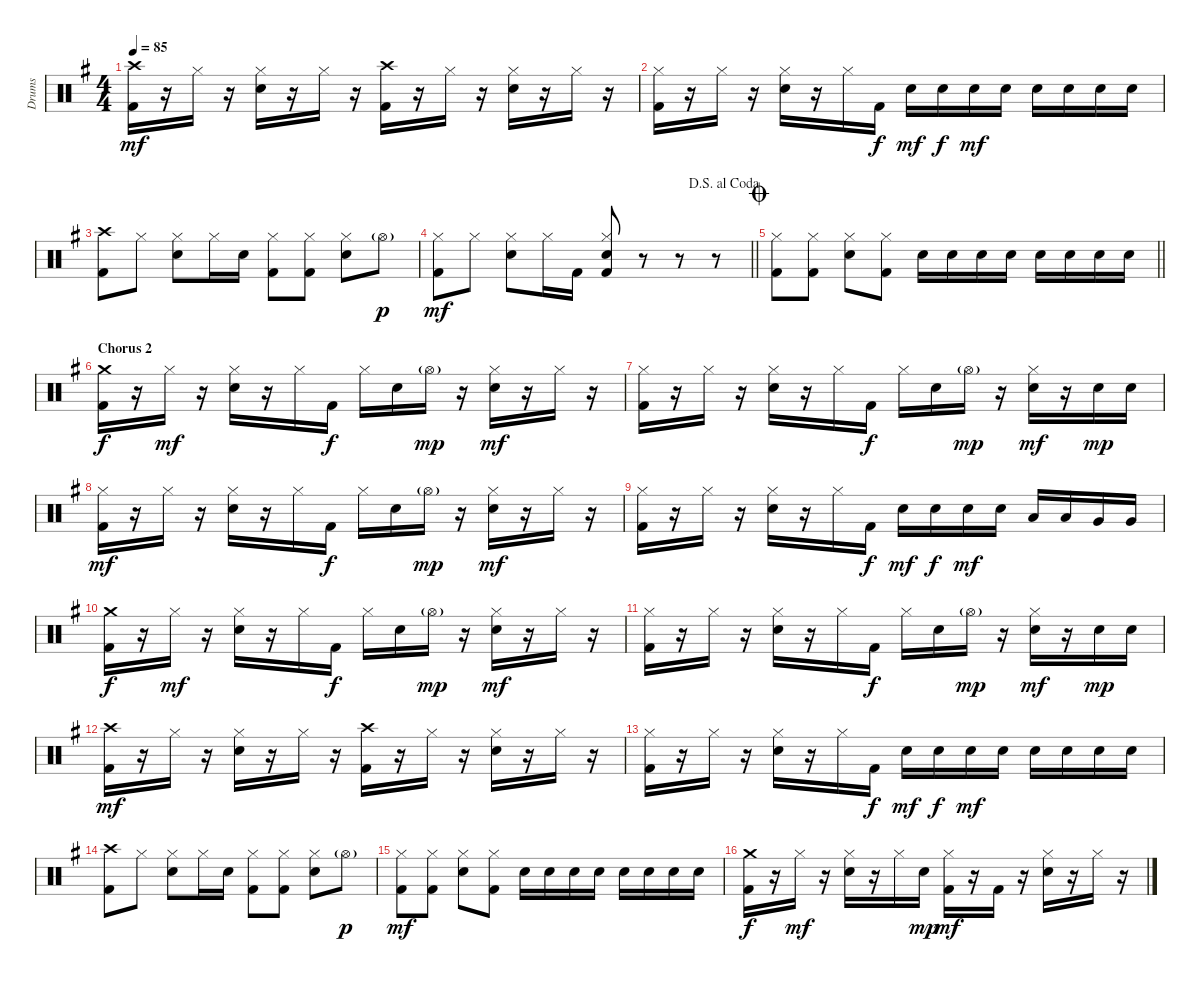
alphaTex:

\track ("Drums" "Drums") {instrument percussion}
\staff {score}
\articulation defaults
\ts (4 4)
\tempo 85
\clef neutral
\ks g
("Crash high (hit)" "Kick (hit) 2").16{dy mf} r.16 "Hi-Hat (closed)".16 r.16 ("Hi-Hat (closed)" "Snare (hit) 2").16 r.16 "Hi-Hat (closed)".16 r.16 ("Crash high (hit)" "Kick (hit) 2").16 r.16 "Hi-Hat (closed)".16 r.16 ("Hi-Hat (closed)" "Snare (hit) 2").16 r.16 "Hi-Hat (closed)".16 r.16 |
("Hi-Hat (closed)" "Kick (hit) 2").16 r.16 "Hi-Hat (closed)".16 r.16 ("Hi-Hat (closed)" "Snare (hit) 2").16 r.16 "Hi-Hat (closed)".16 "Kick (hit) 2".16{dy f} "Snare (hit) 2".16{dy mf} "Snare (hit) 2".16{dy f} "Snare (hit) 2".16{dy mf} "Snare (hit) 2".16 "Snare (hit) 2".16 "Snare (hit) 2".16 "Snare (hit) 2".16 "Snare (hit) 2".16 |
("Crash high (hit)" "Kick (hit) 2").8 "Hi-Hat (closed)".8 ("Hi-Hat (closed)" "Snare (hit) 2").8 "Hi-Hat (closed)".16 "Snare (hit) 2".16 ("Hi-Hat (closed)" "Kick (hit) 2").8 ("Hi-Hat (closed)" "Kick (hit) 2").8 ("Hi-Hat (closed)" "Snare (hit) 2").8 "Hi-Hat (open)"{g}.8{dy p} |
\jump dalsegnoalcoda
\barLineRight lightlight
("Hi-Hat (closed)" "Kick (hit) 2").8{dy mf} "Hi-Hat (closed)".8 ("Hi-Hat (closed)" "Snare (hit) 2").8 "Hi-Hat (closed)".16 "Kick (hit) 2".16 ("Hi-Hat (closed)" "Snare (hit) 2" "Kick (hit) 2").8 r.8 r.8 r.8 |
\jump coda
\barLineRight lightlight
("Hi-Hat (closed)" "Kick (hit) 2").8 ("Hi-Hat (closed)" "Kick (hit) 2").8 ("Hi-Hat (closed)" "Snare (hit) 2").8 ("Hi-Hat (closed)" "Kick (hit) 2").8 "Snare (hit) 2".16 "Snare (hit) 2".16 "Snare (hit) 2".16 "Snare (hit) 2".16 "Snare (hit) 2".16 "Snare (hit) 2".16 "Snare (hit) 2".16 "Snare (hit) 2".16 |
\section ("" "Chorus 2")
("Crash medium (hit)" "Kick (hit) 2").16{dy f} r.16 "Hi-Hat (closed)".16{dy mf} r.16 ("Hi-Hat (closed)" "Snare (hit) 2").16 r.16 "Hi-Hat (closed)".16 "Kick (hit) 2".16{dy f} "Hi-Hat (closed)".16 "Snare (hit) 2".16 "Hi-Hat (open)"{g}.16{dy mp} r.16 ("Hi-Hat (closed)" "Snare (hit) 2").16{dy mf} r.16 "Hi-Hat (closed)".16 r.16 |
("Hi-Hat (closed)" "Kick (hit) 2").16 r.16 "Hi-Hat (closed)".16 r.16 ("Hi-Hat (closed)" "Snare (hit) 2").16 r.16 "Hi-Hat (closed)".16 "Kick (hit) 2".16{dy f} "Hi-Hat (closed)".16 "Snare (hit) 2".16 "Hi-Hat (open)"{g}.16{dy mp} r.16 ("Hi-Hat (closed)" "Snare (hit) 2").16{dy mf} r.16 "Snare (hit) 2".16{dy mp} "Snare (hit) 2".16 |
("Hi-Hat (closed)" "Kick (hit) 2").16{dy mf} r.16 "Hi-Hat (closed)".16 r.16 ("Hi-Hat (closed)" "Snare (hit) 2").16 r.16 "Hi-Hat (closed)".16 "Kick (hit) 2".16{dy f} "Hi-Hat (closed)".16 "Snare (hit) 2".16 "Hi-Hat (open)"{g}.16{dy mp} r.16 ("Hi-Hat (closed)" "Snare (hit) 2").16{dy mf} r.16 "Hi-Hat (closed)".16 r.16 |
("Hi-Hat (closed)" "Kick (hit) 2").16 r.16 "Hi-Hat (closed)".16 r.16 ("Hi-Hat (closed)" "Snare (hit) 2").16 r.16 "Hi-Hat (closed)".16 "Kick (hit) 2".16{dy f} "Snare (hit) 2".16{dy mf} "Snare (hit) 2".16{dy f} "Snare (hit) 2".16{dy mf} "Snare (hit) 2".16 "Low Tom (hit)".16 "Low Tom (hit)".16 "Very Low Tom (hit)".16 "Very Low Tom (hit)".16 |
("Crash medium (hit)" "Kick (hit) 2").16{dy f} r.16 "Hi-Hat (closed)".16{dy mf} r.16 ("Hi-Hat (closed)" "Snare (hit) 2").16 r.16 "Hi-Hat (closed)".16 "Kick (hit) 2".16{dy f} "Hi-Hat (closed)".16 "Snare (hit) 2".16 "Hi-Hat (open)"{g}.16{dy mp} r.16 ("Hi-Hat (closed)" "Snare (hit) 2").16{dy mf} r.16 "Hi-Hat (closed)".16 r.16 |
("Hi-Hat (closed)" "Kick (hit) 2").16 r.16 "Hi-Hat (closed)".16 r.16 ("Hi-Hat (closed)" "Snare (hit) 2").16 r.16 "Hi-Hat (closed)".16 "Kick (hit) 2".16{dy f} "Hi-Hat (closed)".16 "Snare (hit) 2".16 "Hi-Hat (open)"{g}.16{dy mp} r.16 ("Hi-Hat (closed)" "Snare (hit) 2").16{dy mf} r.16 "Snare (hit) 2".16{dy mp} "Snare (hit) 2".16 |
("Crash high (hit)" "Kick (hit) 2").16{dy mf} r.16 "Hi-Hat (closed)".16 r.16 ("Hi-Hat (closed)" "Snare (hit) 2").16 r.16 "Hi-Hat (closed)".16 r.16 ("Crash high (hit)" "Kick (hit) 2").16 r.16 "Hi-Hat (closed)".16 r.16 ("Hi-Hat (closed)" "Snare (hit) 2").16 r.16 "Hi-Hat (closed)".16 r.16 |
("Hi-Hat (closed)" "Kick (hit) 2").16 r.16 "Hi-Hat (closed)".16 r.16 ("Hi-Hat (closed)" "Snare (hit) 2").16 r.16 "Hi-Hat (closed)".16 "Kick (hit) 2".16{dy f} "Snare (hit) 2".16{dy mf} "Snare (hit) 2".16{dy f} "Snare (hit) 2".16{dy mf} "Snare (hit) 2".16 "Snare (hit) 2".16 "Snare (hit) 2".16 "Snare (hit) 2".16 "Snare (hit) 2".16 |
("Crash high (hit)" "Kick (hit) 2").8 "Hi-Hat (closed)".8 ("Hi-Hat (closed)" "Snare (hit) 2").8 "Hi-Hat (closed)".16 "Snare (hit) 2".16 ("Hi-Hat (closed)" "Kick (hit) 2").8 ("Hi-Hat (closed)" "Kick (hit) 2").8 ("Hi-Hat (closed)" "Snare (hit) 2").8 "Hi-Hat (open)"{g}.8{dy p} |
("Hi-Hat (closed)" "Kick (hit) 2").8{dy mf} ("Hi-Hat (closed)" "Kick (hit) 2").8 ("Hi-Hat (closed)" "Snare (hit) 2").8 ("Hi-Hat (closed)" "Kick (hit) 2").8 "Snare (hit) 2".16 "Snare (hit) 2".16 "Snare (hit) 2".16 "Snare (hit) 2".16 "Snare (hit) 2".16 "Snare (hit) 2".16 "Snare (hit) 2".16 "Snare (hit) 2".16 |
("Crash medium (hit)" "Kick (hit) 2").16{dy f} r.16 "Hi-Hat (closed)".16{dy mf} r.16 ("Hi-Hat (closed)" "Snare (hit) 2").16 r.16 "Hi-Hat (closed)".16 "Snare (hit) 2".16{dy mp} ("Hi-Hat (closed)" "Kick (hit) 2").16{dy mf} r.16 "Kick (hit) 2".16 r.16 ("Hi-Hat (closed)" "Snare (hit) 2").16 r.16 "Hi-Hat (closed)".16 r.16
